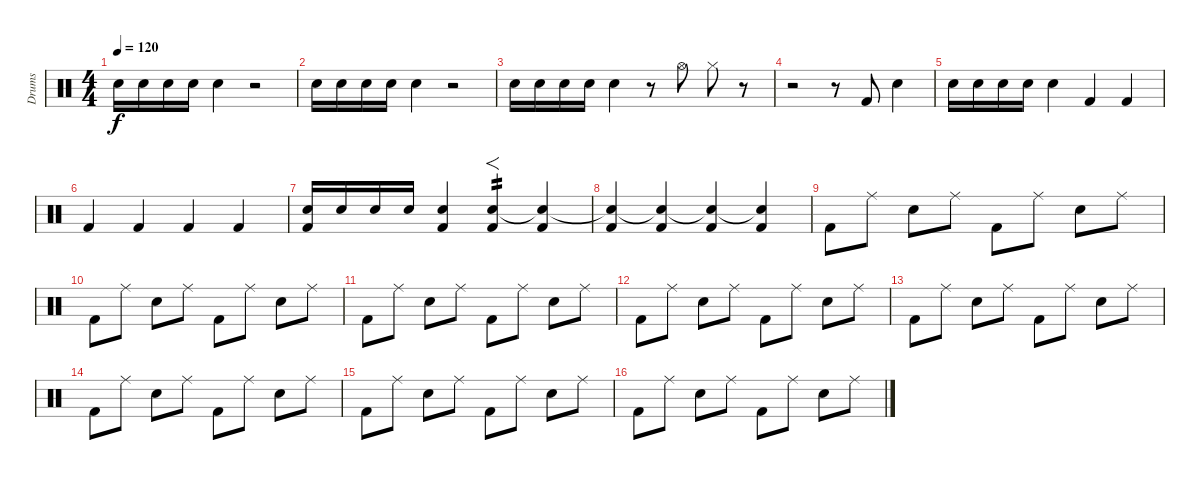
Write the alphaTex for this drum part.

\track ("Drums" "Drums") {instrument percussion}
\staff {score}
\articulation defaults
\ts (4 4)
\tempo 120
\clef neutral
\ks c "Electric Snare (hit)".16{dy f} "Electric Snare (hit)".16 "Electric Snare (hit)".16 "Electric Snare (hit)".16 "Electric Snare (hit)".4
r.2 |
"Electric Snare (hit)".16 "Electric Snare (hit)".16 "Electric Snare (hit)".16 "Electric Snare (hit)".16 "Electric Snare (hit)".4 r.2 |
"Electric Snare (hit)".16 "Electric Snare (hit)".16 "Electric Snare (hit)".16 "Electric Snare (hit)".16 "Electric Snare (hit)".4 r.8 "Hi-Hat (open)".8 "Hi-Hat (closed)".8 r.8 |
r.2 r.8 "Kick (hit) 2".8 "Electric Snare (hit)".4 |
"Electric Snare (hit)".16 "Electric Snare (hit)".16 "Electric Snare (hit)".16 "Electric Snare (hit)".16 "Electric Snare (hit)".4 "Kick (hit) 2".4 "Kick (hit) 2".4 |
"Kick (hit) 2".4 "Kick (hit) 2".4 "Kick (hit) 2".4 "Kick (hit) 2".4 |
("Electric Snare (hit)" "Kick (hit) 2").16 "Electric Snare (hit)".16 "Electric Snare (hit)".16 "Electric Snare (hit)".16 ("Electric Snare (hit)" "Kick (hit) 2").4 ("Electric Snare (hit)" "Kick (hit) 2").4{f tp 2} ("Snare (hit)"{t} "Kick (hit) 2").4 |
("Snare (hit)"{t} "Kick (hit) 2").4 ("Snare (hit)"{t} "Kick (hit) 2").4 ("Snare (hit)"{t} "Kick (hit) 2").4 ("Snare (hit)"{t} "Kick (hit) 2").4 |
"Kick (hit) 2".8 "Ride (middle)".8 "Electric Snare (hit)".8 "Ride (middle)".8 "Kick (hit) 2".8 "Ride (middle)".8 "Electric Snare (hit)".8 "Ride (middle)".8 |
"Kick (hit) 2".8 "Ride (middle)".8 "Electric Snare (hit)".8 "Ride (middle)".8 "Kick (hit) 2".8 "Ride (middle)".8 "Electric Snare (hit)".8 "Ride (middle)".8 |
"Kick (hit) 2".8 "Ride (middle)".8 "Electric Snare (hit)".8 "Ride (middle)".8 "Kick (hit) 2".8 "Ride (middle)".8 "Electric Snare (hit)".8 "Ride (middle)".8 |
"Kick (hit) 2".8 "Ride (middle)".8 "Electric Snare (hit)".8 "Ride (middle)".8 "Kick (hit) 2".8 "Ride (middle)".8 "Electric Snare (hit)".8 "Ride (middle)".8 |
"Kick (hit) 2".8 "Ride (middle)".8 "Electric Snare (hit)".8 "Ride (middle)".8 "Kick (hit) 2".8 "Ride (middle)".8 "Electric Snare (hit)".8 "Ride (middle)".8 |
"Kick (hit) 2".8 "Ride (middle)".8 "Electric Snare (hit)".8 "Ride (middle)".8 "Kick (hit) 2".8 "Ride (middle)".8 "Electric Snare (hit)".8 "Ride (middle)".8 |
"Kick (hit) 2".8 "Ride (middle)".8 "Electric Snare (hit)".8 "Ride (middle)".8 "Kick (hit) 2".8 "Ride (middle)".8 "Electric Snare (hit)".8 "Ride (middle)".8 |
"Kick (hit) 2".8 "Ride (middle)".8 "Electric Snare (hit)".8 "Ride (middle)".8 "Kick (hit) 2".8 "Ride (middle)".8 "Electric Snare (hit)".8 "Ride (middle)".8
